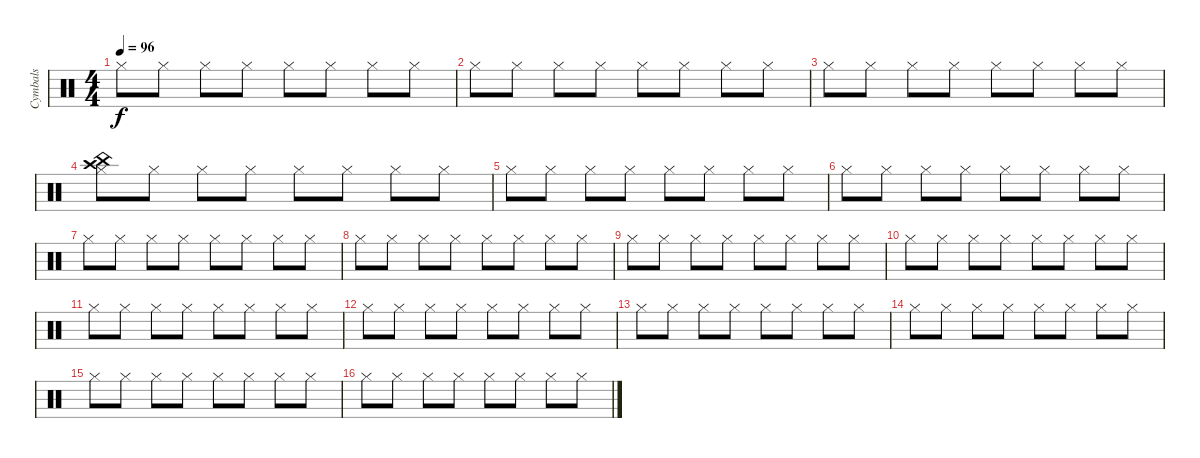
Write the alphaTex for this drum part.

\track ("Cymbals" "Cymbals") {instrument percussion}
\staff {score}
\articulation defaults
\ts (4 4)
\tempo 96
\clef neutral
\ks c "Hi-Hat (closed)".8{dy f} "Hi-Hat (closed)".8 "Hi-Hat (closed)".8 "Hi-Hat (closed)".8 "Hi-Hat (closed)".8 "Hi-Hat (closed)".8 "Hi-Hat (closed)".8 "Hi-Hat (closed)".8
|
"Hi-Hat (closed)".8 "Hi-Hat (closed)".8 "Hi-Hat (closed)".8 "Hi-Hat (closed)".8 "Hi-Hat (closed)".8 "Hi-Hat (closed)".8 "Hi-Hat (closed)".8 "Hi-Hat (closed)".8 |
"Hi-Hat (closed)".8 "Hi-Hat (closed)".8 "Hi-Hat (closed)".8 "Hi-Hat (closed)".8 "Hi-Hat (closed)".8 "Hi-Hat (closed)".8 "Hi-Hat (closed)".8 "Hi-Hat (closed)".8 |
("Crash high (hit)" "China (hit)" "Hi-Hat (closed)").8 "Hi-Hat (closed)".8 "Hi-Hat (closed)".8 "Hi-Hat (closed)".8 "Hi-Hat (closed)".8 "Hi-Hat (closed)".8 "Hi-Hat (closed)".8 "Hi-Hat (closed)".8 |
"Hi-Hat (closed)".8 "Hi-Hat (closed)".8 "Hi-Hat (closed)".8 "Hi-Hat (closed)".8 "Hi-Hat (closed)".8 "Hi-Hat (closed)".8 "Hi-Hat (closed)".8 "Hi-Hat (closed)".8 |
"Hi-Hat (closed)".8 "Hi-Hat (closed)".8 "Hi-Hat (closed)".8 "Hi-Hat (closed)".8 "Hi-Hat (closed)".8 "Hi-Hat (closed)".8 "Hi-Hat (closed)".8 "Hi-Hat (closed)".8 |
"Hi-Hat (closed)".8 "Hi-Hat (closed)".8 "Hi-Hat (closed)".8 "Hi-Hat (closed)".8 "Hi-Hat (closed)".8 "Hi-Hat (closed)".8 "Hi-Hat (closed)".8 "Hi-Hat (closed)".8 |
"Hi-Hat (closed)".8 "Hi-Hat (closed)".8 "Hi-Hat (closed)".8 "Hi-Hat (closed)".8 "Hi-Hat (closed)".8 "Hi-Hat (closed)".8 "Hi-Hat (closed)".8 "Hi-Hat (closed)".8 |
"Hi-Hat (closed)".8 "Hi-Hat (closed)".8 "Hi-Hat (closed)".8 "Hi-Hat (closed)".8 "Hi-Hat (closed)".8 "Hi-Hat (closed)".8 "Hi-Hat (closed)".8 "Hi-Hat (closed)".8 |
"Hi-Hat (closed)".8 "Hi-Hat (closed)".8 "Hi-Hat (closed)".8 "Hi-Hat (closed)".8 "Hi-Hat (closed)".8 "Hi-Hat (closed)".8 "Hi-Hat (closed)".8 "Hi-Hat (closed)".8 |
"Hi-Hat (closed)".8 "Hi-Hat (closed)".8 "Hi-Hat (closed)".8 "Hi-Hat (closed)".8 "Hi-Hat (closed)".8 "Hi-Hat (closed)".8 "Hi-Hat (closed)".8 "Hi-Hat (closed)".8 |
"Hi-Hat (closed)".8 "Hi-Hat (closed)".8 "Hi-Hat (closed)".8 "Hi-Hat (closed)".8 "Hi-Hat (closed)".8 "Hi-Hat (closed)".8 "Hi-Hat (closed)".8 "Hi-Hat (closed)".8 |
"Hi-Hat (closed)".8 "Hi-Hat (closed)".8 "Hi-Hat (closed)".8 "Hi-Hat (closed)".8 "Hi-Hat (closed)".8 "Hi-Hat (closed)".8 "Hi-Hat (closed)".8 "Hi-Hat (closed)".8 |
"Hi-Hat (closed)".8 "Hi-Hat (closed)".8 "Hi-Hat (closed)".8 "Hi-Hat (closed)".8 "Hi-Hat (closed)".8 "Hi-Hat (closed)".8 "Hi-Hat (closed)".8 "Hi-Hat (closed)".8 |
"Hi-Hat (closed)".8 "Hi-Hat (closed)".8 "Hi-Hat (closed)".8 "Hi-Hat (closed)".8 "Hi-Hat (closed)".8 "Hi-Hat (closed)".8 "Hi-Hat (closed)".8 "Hi-Hat (closed)".8 |
"Hi-Hat (closed)".8 "Hi-Hat (closed)".8 "Hi-Hat (closed)".8 "Hi-Hat (closed)".8 "Hi-Hat (closed)".8 "Hi-Hat (closed)".8 "Hi-Hat (closed)".8 "Hi-Hat (closed)".8
